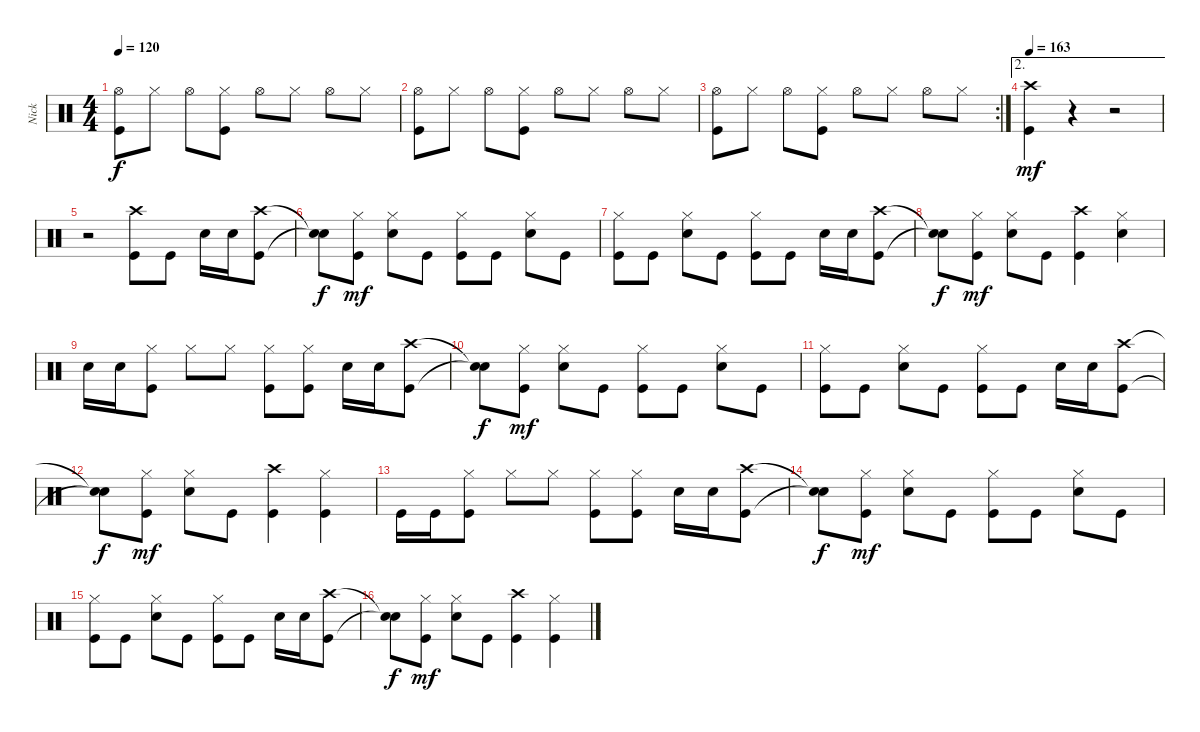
\track ("Nick" "Nick") {instrument percussion}
\staff {score}
\articulation defaults
\ts (4 4)
\tempo 120
\clef neutral
\ks c
("Kick (hit)" "Hi-Hat (open)").8{dy f} "Hi-Hat (closed)".8 "Hi-Hat (open)".8 ("Kick (hit)" "Hi-Hat (closed)").8 "Hi-Hat (open)".8 "Hi-Hat (closed)".8 "Hi-Hat (open)".8 "Hi-Hat (closed)".8 |
("Kick (hit)" "Hi-Hat (open)").8 "Hi-Hat (closed)".8 "Hi-Hat (open)".8 ("Kick (hit)" "Hi-Hat (closed)").8 "Hi-Hat (open)".8 "Hi-Hat (closed)".8 "Hi-Hat (open)".8 "Hi-Hat (closed)".8 |
\rc 2
("Kick (hit)" "Hi-Hat (open)").8 "Hi-Hat (closed)".8 "Hi-Hat (open)".8 ("Kick (hit)" "Hi-Hat (closed)").8 "Hi-Hat (open)".8 "Hi-Hat (closed)".8 "Hi-Hat (open)".8 "Hi-Hat (closed)".8 |
\ae 2
\tempo 163
("Kick (hit)" "Crash high (hit)").4{dy mf} r.4 r.2 |
r.2 ("Kick (hit)" "Crash high (hit)").8 "Kick (hit)".8 "Snare (hit) 2".16 "Snare (hit) 2".16 ("Kick (hit)" "Crash high (hit)").8 |
("Snare (hit)"{t} "Snare (hit)"{t}).8{dy f} ("Kick (hit)" "Hi-Hat (closed)").8{dy mf} ("Hi-Hat (closed)" "Snare (hit) 2").8 "Kick (hit)".8 ("Kick (hit)" "Hi-Hat (closed)").8 "Kick (hit)".8 ("Hi-Hat (closed)" "Snare (hit) 2").8 "Kick (hit)".8 |
("Kick (hit)" "Hi-Hat (closed)").8 "Kick (hit)".8 ("Hi-Hat (closed)" "Snare (hit) 2").8 "Kick (hit)".8 ("Kick (hit)" "Hi-Hat (closed)").8 "Kick (hit)".8 "Snare (hit) 2".16 "Snare (hit) 2".16 ("Kick (hit)" "Crash high (hit)").8 |
("Snare (hit)"{t} "Snare (hit)"{t}).8{dy f} ("Kick (hit)" "Hi-Hat (closed)").8{dy mf} ("Hi-Hat (closed)" "Snare (hit) 2").8 "Kick (hit)".8 ("Kick (hit)" "Crash high (hit)").4 ("Hi-Hat (closed)" "Snare (hit) 2").4 |
"Snare (hit) 2".16 "Snare (hit) 2".16 ("Kick (hit)" "Hi-Hat (closed)").8 "Hi-Hat (closed)".8 "Hi-Hat (closed)".8 ("Kick (hit)" "Hi-Hat (closed)").8 ("Kick (hit)" "Hi-Hat (closed)").8 "Snare (hit) 2".16 "Snare (hit) 2".16 ("Kick (hit)" "Crash high (hit)").8 |
("Snare (hit)"{t} "Snare (hit)"{t}).8{dy f} ("Kick (hit)" "Hi-Hat (closed)").8{dy mf} ("Hi-Hat (closed)" "Snare (hit) 2").8 "Kick (hit)".8 ("Kick (hit)" "Hi-Hat (closed)").8 "Kick (hit)".8 ("Hi-Hat (closed)" "Snare (hit) 2").8 "Kick (hit)".8 |
("Kick (hit)" "Hi-Hat (closed)").8 "Kick (hit)".8 ("Hi-Hat (closed)" "Snare (hit) 2").8 "Kick (hit)".8 ("Kick (hit)" "Hi-Hat (closed)").8 "Kick (hit)".8 "Snare (hit) 2".16 "Snare (hit) 2".16 ("Kick (hit)" "Crash high (hit)").8 |
("Snare (hit)"{t} "Snare (hit)"{t}).8{dy f} ("Kick (hit)" "Hi-Hat (closed)").8{dy mf} ("Hi-Hat (closed)" "Snare (hit) 2").8 "Kick (hit)".8 ("Kick (hit)" "Crash high (hit)").4 ("Kick (hit)" "Hi-Hat (closed)").4 |
"Kick (hit)".16 "Kick (hit)".16 ("Kick (hit)" "Hi-Hat (closed)").8 "Hi-Hat (closed)".8 "Hi-Hat (closed)".8 ("Kick (hit)" "Hi-Hat (closed)").8 ("Kick (hit)" "Hi-Hat (closed)").8 "Snare (hit) 2".16 "Snare (hit) 2".16 ("Kick (hit)" "Crash high (hit)").8 |
("Snare (hit)"{t} "Snare (hit)"{t}).8{dy f} ("Kick (hit)" "Hi-Hat (closed)").8{dy mf} ("Hi-Hat (closed)" "Snare (hit) 2").8 "Kick (hit)".8 ("Kick (hit)" "Hi-Hat (closed)").8 "Kick (hit)".8 ("Hi-Hat (closed)" "Snare (hit) 2").8 "Kick (hit)".8 |
("Kick (hit)" "Hi-Hat (closed)").8 "Kick (hit)".8 ("Hi-Hat (closed)" "Snare (hit) 2").8 "Kick (hit)".8 ("Kick (hit)" "Hi-Hat (closed)").8 "Kick (hit)".8 "Snare (hit) 2".16 "Snare (hit) 2".16 ("Kick (hit)" "Crash high (hit)").8 |
("Snare (hit)"{t} "Snare (hit)"{t}).8{dy f} ("Kick (hit)" "Hi-Hat (closed)").8{dy mf} ("Hi-Hat (closed)" "Snare (hit) 2").8 "Kick (hit)".8 ("Kick (hit)" "Crash high (hit)").4 ("Kick (hit)" "Hi-Hat (closed)").4
